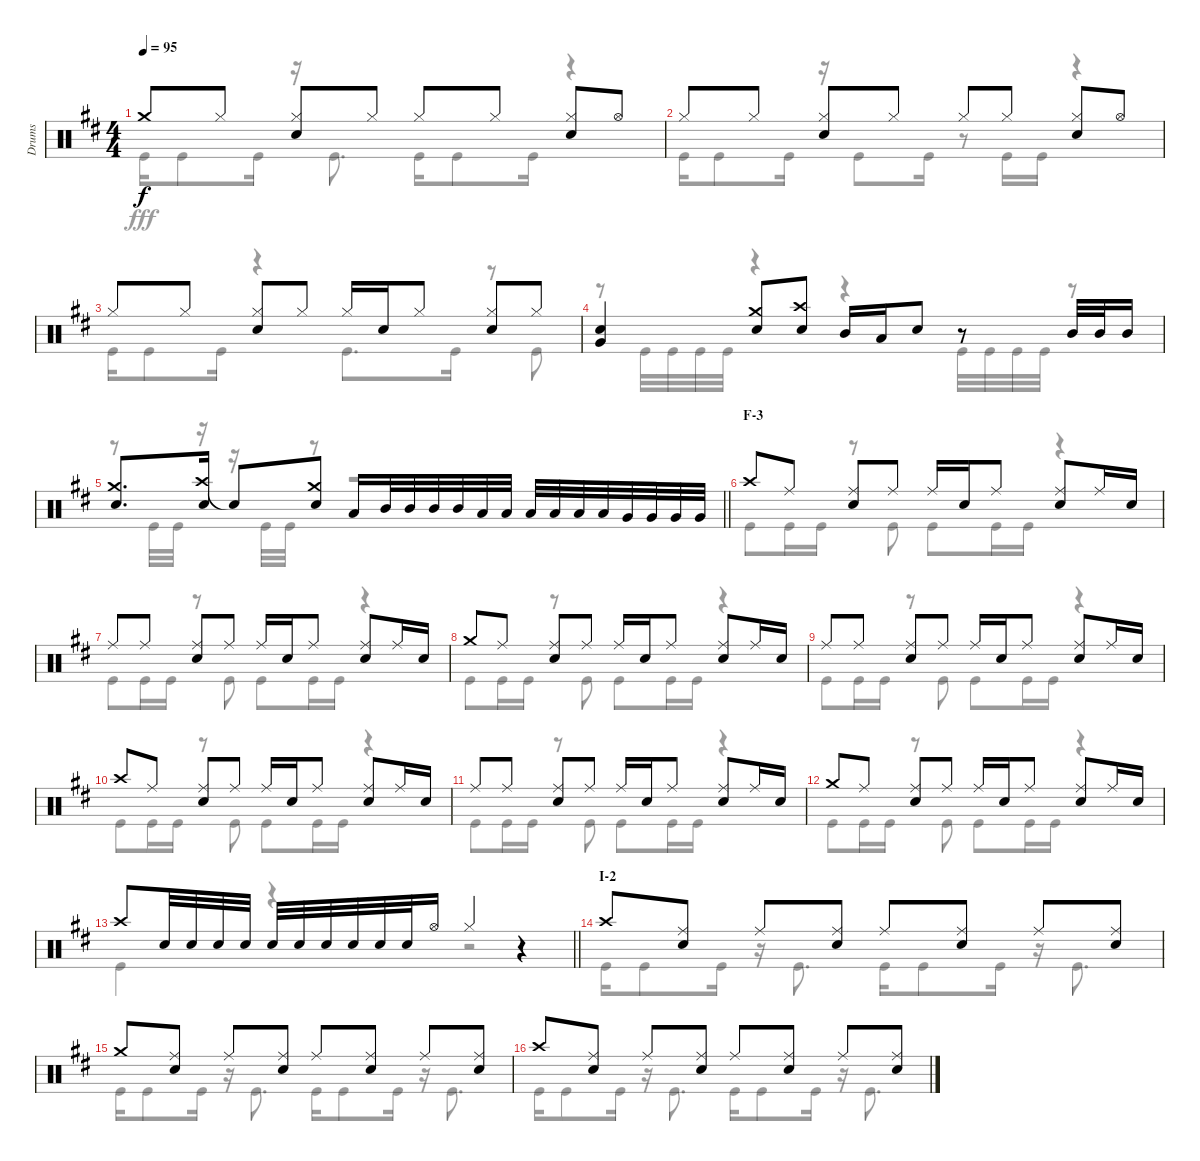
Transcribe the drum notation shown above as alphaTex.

\track ("Drums" "Drums") {instrument percussion}
\staff {score}
\articulation defaults
\voice
\ts (4 4)
\tempo 95
\clef neutral
\ks d "Crash medium (hit)".8{dy f} "Hi-Hat (closed)".8
("Hi-Hat (closed)" "Snare (hit) 2").8 "Hi-Hat (closed)".8 "Hi-Hat (closed)".8 "Hi-Hat (closed)".8 ("Hi-Hat (closed)" "Snare (hit) 2").8 "Hi-Hat (open)".8 |
"Hi-Hat (closed)".8 "Hi-Hat (closed)".8 ("Hi-Hat (closed)" "Snare (hit) 2").8 "Hi-Hat (closed)".8 "Hi-Hat (closed)".8 "Hi-Hat (closed)".8 ("Hi-Hat (closed)" "Snare (hit) 2").8 "Hi-Hat (open)".8 |
"Hi-Hat (closed)".8 "Hi-Hat (closed)".8 ("Hi-Hat (closed)" "Snare (hit) 2").8 "Hi-Hat (closed)".8 "Hi-Hat (closed)".16 "Snare (hit) 2".16 "Hi-Hat (closed)".8 ("Hi-Hat (closed)" "Snare (hit) 2").8 "Hi-Hat (closed)".8 |
("Snare (hit) 2" "Very Low Tom (hit)").4 ("Crash medium (hit)" "Snare (hit) 2").8 ("Crash high (hit)" "Snare (hit) 2").8 "Mid Tom (hit)".16 "Low Tom (hit)".16 "Snare (hit) 2".8 r.8 "Mid Tom (hit)".32 "Mid Tom (hit)".32 "Mid Tom (hit)".16 |
\barLineRight lightlight
("Crash medium (hit)" "Snare (hit) 2").8{d} ("Crash high (hit)" "Snare (hit) 2").16 "Snare (hit)"{t}.8 ("Crash medium (hit)" "Snare (hit) 2").8 "Low Tom (hit)".16 "Mid Tom (hit)".32 "Mid Tom (hit)".32 "Mid Tom (hit)".32 "Mid Tom (hit)".32 "Low Tom (hit)".32 "Low Tom (hit)".32 "Low Tom (hit)".32 "Low Tom (hit)".32 "Low Tom (hit)".32 "Low Tom (hit)".32 "Very Low Tom (hit)".32 "Very Low Tom (hit)".32 "Very Low Tom (hit)".32 "Very Low Tom (hit)".32 |
\section ("" "F-3")
"Crash high (hit)".8 "Ride (middle)".8 ("Ride (middle)" "Snare (hit) 2").8 "Ride (middle)".8 "Ride (middle)".16 "Snare (hit) 2".16 "Ride (middle)".8 ("Ride (middle)" "Snare (hit) 2").8 "Ride (middle)".16 "Snare (hit) 2".16 |
"Ride (middle)".8 "Ride (middle)".8 ("Ride (middle)" "Snare (hit) 2").8 "Ride (middle)".8 "Ride (middle)".16 "Snare (hit) 2".16 "Ride (middle)".8 ("Ride (middle)" "Snare (hit) 2").8 "Ride (middle)".16 "Snare (hit) 2".16 |
"Crash medium (hit)".8 "Ride (middle)".8 ("Ride (middle)" "Snare (hit) 2").8 "Ride (middle)".8 "Ride (middle)".16 "Snare (hit) 2".16 "Ride (middle)".8 ("Ride (middle)" "Snare (hit) 2").8 "Ride (middle)".16 "Snare (hit) 2".16 |
"Ride (middle)".8 "Ride (middle)".8 ("Ride (middle)" "Snare (hit) 2").8 "Ride (middle)".8 "Ride (middle)".16 "Snare (hit) 2".16 "Ride (middle)".8 ("Ride (middle)" "Snare (hit) 2").8 "Ride (middle)".16 "Snare (hit) 2".16 |
"Crash high (hit)".8 "Ride (middle)".8 ("Ride (middle)" "Snare (hit) 2").8 "Ride (middle)".8 "Ride (middle)".16 "Snare (hit) 2".16 "Ride (middle)".8 ("Ride (middle)" "Snare (hit) 2").8 "Ride (middle)".16 "Snare (hit) 2".16 |
"Ride (middle)".8 "Ride (middle)".8 ("Ride (middle)" "Snare (hit) 2").8 "Ride (middle)".8 "Ride (middle)".16 "Snare (hit) 2".16 "Ride (middle)".8 ("Ride (middle)" "Snare (hit) 2").8 "Ride (middle)".16 "Snare (hit) 2".16 |
"Crash medium (hit)".8 "Ride (middle)".8 ("Ride (middle)" "Snare (hit) 2").8 "Ride (middle)".8 "Ride (middle)".16 "Snare (hit) 2".16 "Ride (middle)".8 ("Ride (middle)" "Snare (hit) 2").8 "Ride (middle)".16 "Snare (hit) 2".16 |
\barLineRight lightlight "Crash high (hit)".8 "Snare (hit) 2".32 "Snare (hit) 2".32 "Snare (hit) 2".32 "Snare (hit) 2".32 "Snare (hit) 2".32 "Snare (hit) 2".32 "Snare (hit) 2".32 "Snare (hit) 2".32 "Snare (hit) 2".32 "Snare (hit) 2".32 "Hi-Hat (open)".16 "Hi-Hat (closed)".4
r.4 |
\section ("" "I-2")
"Crash high (hit)".8 ("Ride (middle)" "Snare (hit) 2").8 "Ride (middle)".8 ("Ride (middle)" "Snare (hit) 2").8 "Ride (middle)".8 ("Ride (middle)" "Snare (hit) 2").8 "Ride (middle)".8 ("Ride (middle)" "Snare (hit) 2").8 |
"Crash medium (hit)".8 ("Ride (middle)" "Snare (hit) 2").8 "Ride (middle)".8 ("Ride (middle)" "Snare (hit) 2").8 "Ride (middle)".8 ("Ride (middle)" "Snare (hit) 2").8 "Ride (middle)".8 ("Ride (middle)" "Snare (hit) 2").8 |
"Crash high (hit)".8 ("Ride (middle)" "Snare (hit) 2").8 "Ride (middle)".8 ("Ride (middle)" "Snare (hit) 2").8 "Ride (middle)".8 ("Ride (middle)" "Snare (hit) 2").8 "Ride (middle)".8 ("Ride (middle)" "Snare (hit) 2").8
\voice
\clef neutral
\ottava regular
\simile none
\ks d "Kick (hit)".16{dy fff} "Kick (hit)".8 "Kick (hit)".16
r.16 "Kick (hit)".8{d} "Kick (hit)".16 "Kick (hit)".8 "Kick (hit)".16 r.4 |
"Kick (hit)".16 "Kick (hit)".8 "Kick (hit)".16 r.16 "Kick (hit)".8 "Kick (hit)".16 r.8 "Kick (hit)".16 "Kick (hit)".16 r.4 |
"Kick (hit)".16 "Kick (hit)".8 "Kick (hit)".16 r.4 "Kick (hit)".8{d} "Kick (hit)".16 r.8 "Kick (hit)".8 |
r.8 "Kick (hit)".32 "Kick (hit)".32 "Kick (hit)".32 "Kick (hit)".32 r.4 r.4 "Kick (hit)".32 "Kick (hit)".32 "Kick (hit)".32 "Kick (hit)".32 r.8 |
\barLineRight lightlight
r.8 "Kick (hit)".32 "Kick (hit)".32 r.16 r.16 "Kick (hit)".32 "Kick (hit)".32 r.8 r.2 |
"Kick (hit)".8 "Kick (hit)".16 "Kick (hit)".16 r.8 "Kick (hit)".8 "Kick (hit)".8 "Kick (hit)".16 "Kick (hit)".16 r.4 |
"Kick (hit)".8 "Kick (hit)".16 "Kick (hit)".16 r.8 "Kick (hit)".8 "Kick (hit)".8 "Kick (hit)".16 "Kick (hit)".16 r.4 |
"Kick (hit)".8 "Kick (hit)".16 "Kick (hit)".16 r.8 "Kick (hit)".8 "Kick (hit)".8 "Kick (hit)".16 "Kick (hit)".16 r.4 |
"Kick (hit)".8 "Kick (hit)".16 "Kick (hit)".16 r.8 "Kick (hit)".8 "Kick (hit)".8 "Kick (hit)".16 "Kick (hit)".16 r.4 |
"Kick (hit)".8 "Kick (hit)".16 "Kick (hit)".16 r.8 "Kick (hit)".8 "Kick (hit)".8 "Kick (hit)".16 "Kick (hit)".16 r.4 |
"Kick (hit)".8 "Kick (hit)".16 "Kick (hit)".16 r.8 "Kick (hit)".8 "Kick (hit)".8 "Kick (hit)".16 "Kick (hit)".16 r.4 |
"Kick (hit)".8 "Kick (hit)".16 "Kick (hit)".16 r.8 "Kick (hit)".8 "Kick (hit)".8 "Kick (hit)".16 "Kick (hit)".16 r.4 |
\barLineRight lightlight "Kick (hit)".4
r.4 r.2 |
"Kick (hit)".16 "Kick (hit)".8 "Kick (hit)".16 r.16 "Kick (hit)".8{d} "Kick (hit)".16 "Kick (hit)".8 "Kick (hit)".16 r.16 "Kick (hit)".8{d} |
"Kick (hit)".16 "Kick (hit)".8 "Kick (hit)".16 r.16 "Kick (hit)".8{d} "Kick (hit)".16 "Kick (hit)".8 "Kick (hit)".16 r.16 "Kick (hit)".8{d} |
"Kick (hit)".16 "Kick (hit)".8 "Kick (hit)".16 r.16 "Kick (hit)".8{d} "Kick (hit)".16 "Kick (hit)".8 "Kick (hit)".16 r.16 "Kick (hit)".8{d}
